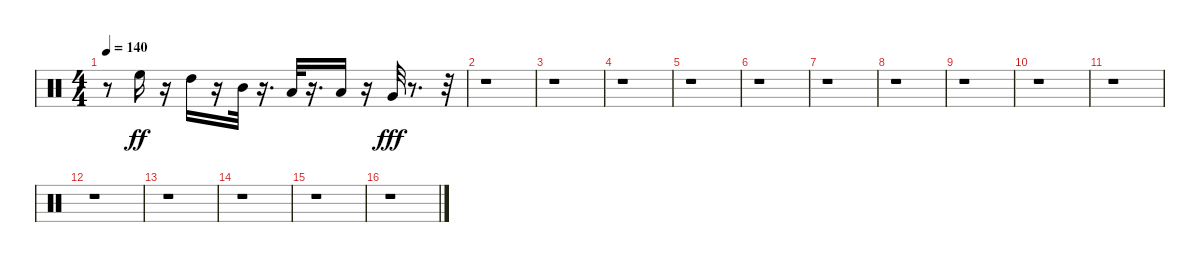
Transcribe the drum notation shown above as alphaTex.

\track "" {instrument percussion}
\staff {score}
\articulation defaults
\ts (4 4)
\tempo 140
\clef neutral
\ks c
r.8{dy ff} "High Floor Tom (hit)".16 r.16 "High Tom (hit)".16 r.16 "Mid Tom (hit)".32 r.16{d} "Low Tom (hit)".32 r.16{d} "Low Tom (hit)".16 r.16 "Very Low Tom (hit)".32{dy fff} r.8{d} r.32 |
r.1 |
r.1 |
r.1 |
r.1 |
r.1 |
r.1 |
r.1 |
r.1 |
r.1 |
r.1 |
r.1 |
r.1 |
r.1 |
r.1 |
r.1
